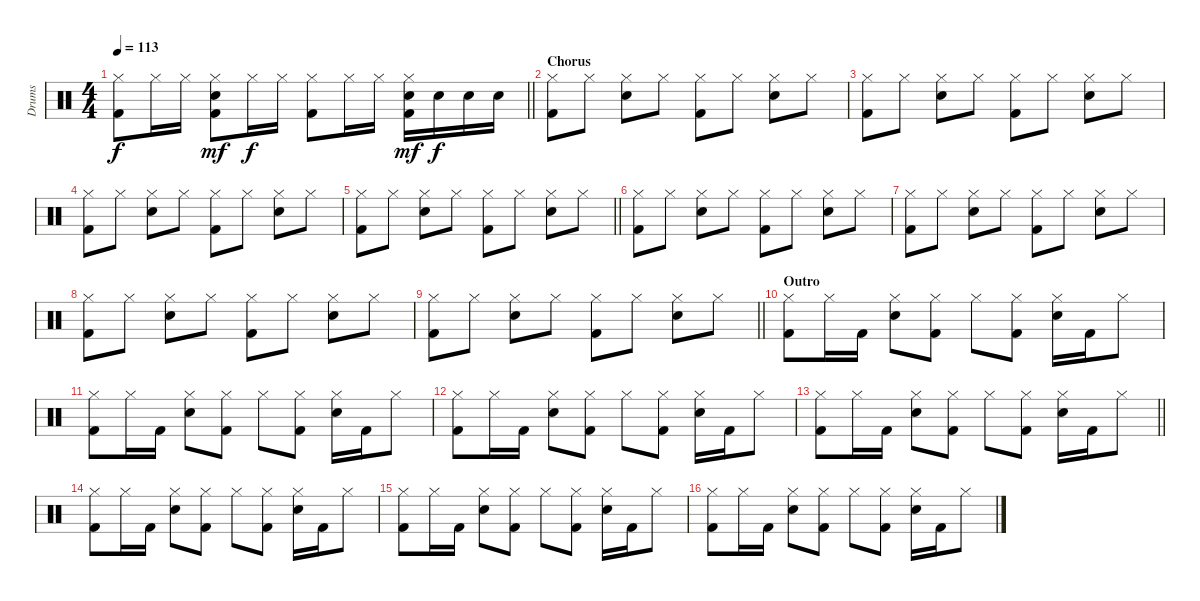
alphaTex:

\track ("Drums" "Drums") {instrument percussion}
\staff {score}
\articulation defaults
\ts (4 4)
\tempo 113
\clef neutral
\barLineRight lightlight
\ks c
("Hi-Hat (closed)" "Kick (hit) 2").8{dy f} "Hi-Hat (closed)".16 "Hi-Hat (closed)".16 ("Hi-Hat (closed)" "Snare (hit) 2" "Kick (hit) 2").8{dy mf} "Hi-Hat (closed)".16{dy f} "Hi-Hat (closed)".16 ("Hi-Hat (closed)" "Kick (hit) 2").8 "Hi-Hat (closed)".16 "Hi-Hat (closed)".16 ("Hi-Hat (closed)" "Snare (hit) 2" "Kick (hit) 2").16{dy mf} "Snare (hit) 2".16{dy f} "Snare (hit) 2".16 "Snare (hit) 2".16 |
\section ("" "Chorus")
("Hi-Hat (closed)" "Kick (hit) 2").8{volume 7} "Hi-Hat (closed)".8 ("Hi-Hat (closed)" "Snare (hit) 2").8 "Hi-Hat (closed)".8 ("Hi-Hat (closed)" "Kick (hit) 2").8 "Hi-Hat (closed)".8 ("Hi-Hat (closed)" "Snare (hit) 2").8 "Hi-Hat (closed)".8 |
("Hi-Hat (closed)" "Kick (hit) 2").8 "Hi-Hat (closed)".8 ("Hi-Hat (closed)" "Snare (hit) 2").8 "Hi-Hat (closed)".8 ("Hi-Hat (closed)" "Kick (hit) 2").8 "Hi-Hat (closed)".8 ("Hi-Hat (closed)" "Snare (hit) 2").8 "Hi-Hat (closed)".8 |
("Hi-Hat (closed)" "Kick (hit) 2").8 "Hi-Hat (closed)".8 ("Hi-Hat (closed)" "Snare (hit) 2").8 "Hi-Hat (closed)".8 ("Hi-Hat (closed)" "Kick (hit) 2").8 "Hi-Hat (closed)".8 ("Hi-Hat (closed)" "Snare (hit) 2").8 "Hi-Hat (closed)".8 |
\barLineRight lightlight
("Hi-Hat (closed)" "Kick (hit) 2").8 "Hi-Hat (closed)".8 ("Hi-Hat (closed)" "Snare (hit) 2").8 "Hi-Hat (closed)".8 ("Hi-Hat (closed)" "Kick (hit) 2").8 "Hi-Hat (closed)".8 ("Hi-Hat (closed)" "Snare (hit) 2").8 "Hi-Hat (closed)".8 |
("Hi-Hat (closed)" "Kick (hit) 2").8{volume 13} "Hi-Hat (closed)".8 ("Hi-Hat (closed)" "Snare (hit) 2").8 "Hi-Hat (closed)".8 ("Hi-Hat (closed)" "Kick (hit) 2").8 "Hi-Hat (closed)".8 ("Hi-Hat (closed)" "Snare (hit) 2").8 "Hi-Hat (closed)".8 |
("Hi-Hat (closed)" "Kick (hit) 2").8 "Hi-Hat (closed)".8 ("Hi-Hat (closed)" "Snare (hit) 2").8 "Hi-Hat (closed)".8 ("Hi-Hat (closed)" "Kick (hit) 2").8 "Hi-Hat (closed)".8 ("Hi-Hat (closed)" "Snare (hit) 2").8 "Hi-Hat (closed)".8 |
("Hi-Hat (closed)" "Kick (hit) 2").8 "Hi-Hat (closed)".8 ("Hi-Hat (closed)" "Snare (hit) 2").8 "Hi-Hat (closed)".8 ("Hi-Hat (closed)" "Kick (hit) 2").8 "Hi-Hat (closed)".8 ("Hi-Hat (closed)" "Snare (hit) 2").8 "Hi-Hat (closed)".8 |
\barLineRight lightlight
("Hi-Hat (closed)" "Kick (hit) 2").8 "Hi-Hat (closed)".8 ("Hi-Hat (closed)" "Snare (hit) 2").8 "Hi-Hat (closed)".8 ("Hi-Hat (closed)" "Kick (hit) 2").8 "Hi-Hat (closed)".8 ("Hi-Hat (closed)" "Snare (hit) 2").8 "Hi-Hat (closed)".8 |
\section ("" "Outro")
("Hi-Hat (closed)" "Kick (hit) 2").8 "Hi-Hat (closed)".16 "Kick (hit) 2".16 ("Hi-Hat (closed)" "Snare (hit) 2").8 ("Hi-Hat (closed)" "Kick (hit) 2").8 "Hi-Hat (closed)".8 ("Hi-Hat (closed)" "Kick (hit) 2").8 ("Hi-Hat (closed)" "Snare (hit) 2").16 "Kick (hit) 2".16 "Hi-Hat (closed)".8 |
("Hi-Hat (closed)" "Kick (hit) 2").8 "Hi-Hat (closed)".16 "Kick (hit) 2".16 ("Hi-Hat (closed)" "Snare (hit) 2").8 ("Hi-Hat (closed)" "Kick (hit) 2").8 "Hi-Hat (closed)".8 ("Hi-Hat (closed)" "Kick (hit) 2").8 ("Hi-Hat (closed)" "Snare (hit) 2").16 "Kick (hit) 2".16 "Hi-Hat (closed)".8 |
("Hi-Hat (closed)" "Kick (hit) 2").8 "Hi-Hat (closed)".16 "Kick (hit) 2".16 ("Hi-Hat (closed)" "Snare (hit) 2").8 ("Hi-Hat (closed)" "Kick (hit) 2").8 "Hi-Hat (closed)".8 ("Hi-Hat (closed)" "Kick (hit) 2").8 ("Hi-Hat (closed)" "Snare (hit) 2").16 "Kick (hit) 2".16 "Hi-Hat (closed)".8 |
\barLineRight lightlight
("Hi-Hat (closed)" "Kick (hit) 2").8 "Hi-Hat (closed)".16 "Kick (hit) 2".16 ("Hi-Hat (closed)" "Snare (hit) 2").8 ("Hi-Hat (closed)" "Kick (hit) 2").8 "Hi-Hat (closed)".8 ("Hi-Hat (closed)" "Kick (hit) 2").8 ("Hi-Hat (closed)" "Snare (hit) 2").16 "Kick (hit) 2".16 "Hi-Hat (closed)".8 |
("Hi-Hat (closed)" "Kick (hit) 2").8 "Hi-Hat (closed)".16 "Kick (hit) 2".16 ("Hi-Hat (closed)" "Snare (hit) 2").8 ("Hi-Hat (closed)" "Kick (hit) 2").8 "Hi-Hat (closed)".8 ("Hi-Hat (closed)" "Kick (hit) 2").8 ("Hi-Hat (closed)" "Snare (hit) 2").16 "Kick (hit) 2".16 "Hi-Hat (closed)".8 |
("Hi-Hat (closed)" "Kick (hit) 2").8 "Hi-Hat (closed)".16 "Kick (hit) 2".16 ("Hi-Hat (closed)" "Snare (hit) 2").8 ("Hi-Hat (closed)" "Kick (hit) 2").8 "Hi-Hat (closed)".8 ("Hi-Hat (closed)" "Kick (hit) 2").8 ("Hi-Hat (closed)" "Snare (hit) 2").16 "Kick (hit) 2".16 "Hi-Hat (closed)".8 |
("Hi-Hat (closed)" "Kick (hit) 2").8 "Hi-Hat (closed)".16 "Kick (hit) 2".16 ("Hi-Hat (closed)" "Snare (hit) 2").8 ("Hi-Hat (closed)" "Kick (hit) 2").8 "Hi-Hat (closed)".8 ("Hi-Hat (closed)" "Kick (hit) 2").8 ("Hi-Hat (closed)" "Snare (hit) 2").16 "Kick (hit) 2".16 "Hi-Hat (closed)".8
